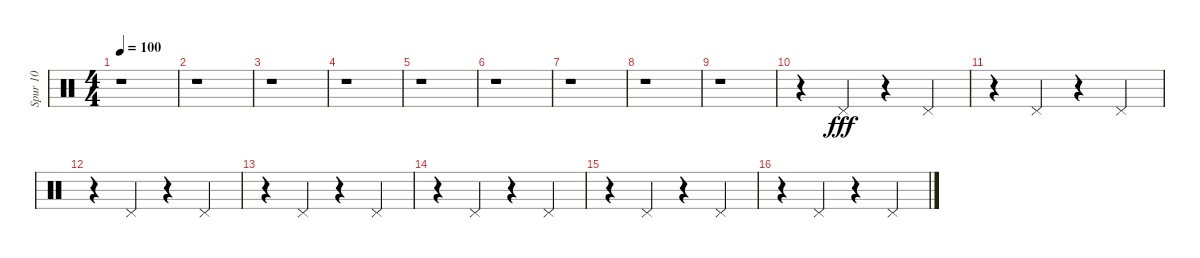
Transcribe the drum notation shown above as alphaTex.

\track ("Spur 10" "Spur 10") {instrument percussion}
\staff {score}
\articulation defaults
\ts (4 4)
\tempo 100
\clef neutral
\ks c
r.1{dy fff} |
r.1 |
r.1 |
r.1 |
r.1 |
r.1 |
r.1 |
r.1 |
r.1 |
r.4 "Pedal Hi-Hat (hit)".4 r.4 "Pedal Hi-Hat (hit)".4 |
r.4 "Pedal Hi-Hat (hit)".4 r.4 "Pedal Hi-Hat (hit)".4 |
r.4 "Pedal Hi-Hat (hit)".4 r.4 "Pedal Hi-Hat (hit)".4 |
r.4 "Pedal Hi-Hat (hit)".4 r.4 "Pedal Hi-Hat (hit)".4 |
r.4 "Pedal Hi-Hat (hit)".4 r.4 "Pedal Hi-Hat (hit)".4 |
r.4 "Pedal Hi-Hat (hit)".4 r.4 "Pedal Hi-Hat (hit)".4 |
r.4 "Pedal Hi-Hat (hit)".4 r.4 "Pedal Hi-Hat (hit)".4
